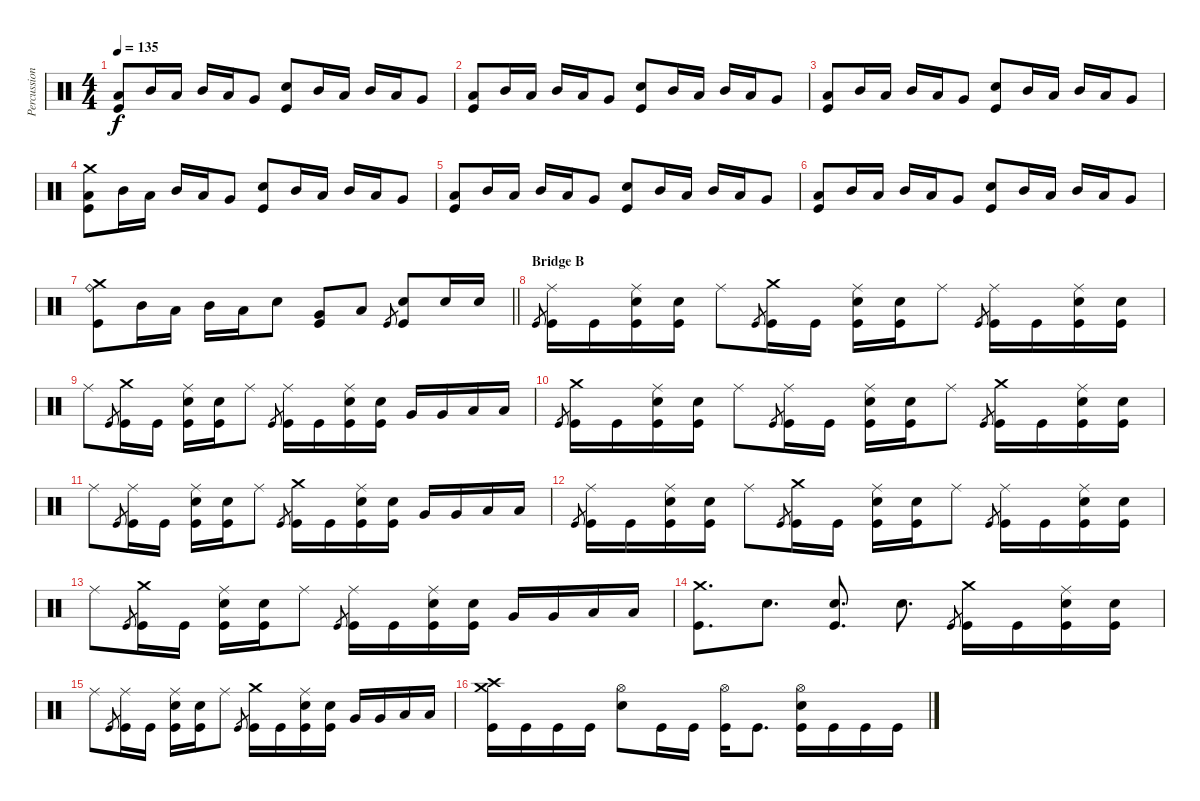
\track ("Percussion" "Percussion") {instrument percussion}
\staff {score}
\articulation defaults
\ts (4 4)
\tempo 135
\clef neutral
\ks c
("Low Tom (hit)" "Kick (hit)").8{dy f} "Mid Tom (hit)".16 "Low Tom (hit)".16 "Mid Tom (hit)".16 "Low Tom (hit)".16 "Very Low Tom (hit)".8 ("Electric Snare (hit)" "Kick (hit)").8 "Mid Tom (hit)".16 "Low Tom (hit)".16 "Mid Tom (hit)".16 "Low Tom (hit)".16 "Very Low Tom (hit)".8 |
("Low Tom (hit)" "Kick (hit)").8 "Mid Tom (hit)".16 "Low Tom (hit)".16 "Mid Tom (hit)".16 "Low Tom (hit)".16 "Very Low Tom (hit)".8 ("Electric Snare (hit)" "Kick (hit)").8 "Mid Tom (hit)".16 "Low Tom (hit)".16 "Mid Tom (hit)".16 "Low Tom (hit)".16 "Very Low Tom (hit)".8 |
("Low Tom (hit)" "Kick (hit)").8 "Mid Tom (hit)".16 "Low Tom (hit)".16 "Mid Tom (hit)".16 "Low Tom (hit)".16 "Very Low Tom (hit)".8 ("Electric Snare (hit)" "Kick (hit)").8 "Mid Tom (hit)".16 "Low Tom (hit)".16 "Mid Tom (hit)".16 "Low Tom (hit)".16 "Very Low Tom (hit)".8 |
("Crash medium (hit)" "Low Tom (hit)" "Kick (hit)").8 "Mid Tom (hit)".16 "Low Tom (hit)".16 "Mid Tom (hit)".16 "Low Tom (hit)".16 "Very Low Tom (hit)".8 ("Electric Snare (hit)" "Kick (hit)").8 "Mid Tom (hit)".16 "Low Tom (hit)".16 "Mid Tom (hit)".16 "Low Tom (hit)".16 "Very Low Tom (hit)".8 |
("Low Tom (hit)" "Kick (hit)").8 "Mid Tom (hit)".16 "Low Tom (hit)".16 "Mid Tom (hit)".16 "Low Tom (hit)".16 "Very Low Tom (hit)".8 ("Electric Snare (hit)" "Kick (hit)").8 "Mid Tom (hit)".16 "Low Tom (hit)".16 "Mid Tom (hit)".16 "Low Tom (hit)".16 "Very Low Tom (hit)".8 |
("Low Tom (hit)" "Kick (hit)").8 "Mid Tom (hit)".16 "Low Tom (hit)".16 "Mid Tom (hit)".16 "Low Tom (hit)".16 "Very Low Tom (hit)".8 ("Electric Snare (hit)" "Kick (hit)").8 "Mid Tom (hit)".16 "Low Tom (hit)".16 "Mid Tom (hit)".16 "Low Tom (hit)".16 "Very Low Tom (hit)".8 |
\barLineRight lightlight
("Crash medium (hit)" "Ride (bell)" "Kick (hit)").8 "Mid Tom (hit)".16 "Low Tom (hit)".16 "Mid Tom (hit)".16 "Low Tom (hit)".16 "Electric Snare (hit)".8 ("Very Low Tom (hit)" "Kick (hit)").8 "Low Tom (hit)".8 "Kick (hit)".8{gr} ("Electric Snare (hit)" "Kick (hit)").8 "Electric Snare (hit)".16 "Electric Snare (hit)".16 |
\section ("" "Bridge B")
"Kick (hit)".8{gr} ("Ride (middle)" "Kick (hit)").16 "Kick (hit)".16 ("Ride (middle)" "Electric Snare (hit)" "Kick (hit)").16 ("Electric Snare (hit)" "Kick (hit)").16 "Ride (middle)".8 "Kick (hit)".8{gr} ("Crash medium (hit)" "Kick (hit)").16 "Kick (hit)".16 ("Ride (middle)" "Electric Snare (hit)" "Kick (hit)").16 ("Electric Snare (hit)" "Kick (hit)").16 "Ride (middle)".8 "Kick (hit)".8{gr} ("Ride (middle)" "Kick (hit)").16 "Kick (hit)".16 ("Ride (middle)" "Electric Snare (hit)" "Kick (hit)").16 ("Electric Snare (hit)" "Kick (hit)").16 |
"Ride (middle)".8 "Kick (hit)".8{gr} ("Crash medium (hit)" "Kick (hit)").16 "Kick (hit)".16 ("Ride (middle)" "Electric Snare (hit)" "Kick (hit)").16 ("Electric Snare (hit)" "Kick (hit)").16 "Ride (middle)".8 "Kick (hit)".8{gr} ("Ride (middle)" "Kick (hit)").16 "Kick (hit)".16 ("Ride (middle)" "Electric Snare (hit)" "Kick (hit)").16 ("Electric Snare (hit)" "Kick (hit)").16 "Very Low Tom (hit)".16 "Very Low Tom (hit)".16 "Low Floor Tom (hit)".16 "Low Floor Tom (hit)".16 |
"Kick (hit)".8{gr} ("Crash medium (hit)" "Kick (hit)").16 "Kick (hit)".16 ("Ride (middle)" "Electric Snare (hit)" "Kick (hit)").16 ("Electric Snare (hit)" "Kick (hit)").16 "Ride (middle)".8 "Kick (hit)".8{gr} ("Ride (middle)" "Kick (hit)").16 "Kick (hit)".16 ("Ride (middle)" "Electric Snare (hit)" "Kick (hit)").16 ("Electric Snare (hit)" "Kick (hit)").16 "Ride (middle)".8 "Kick (hit)".8{gr} ("Crash medium (hit)" "Kick (hit)").16 "Kick (hit)".16 ("Ride (middle)" "Electric Snare (hit)" "Kick (hit)").16 ("Electric Snare (hit)" "Kick (hit)").16 |
"Ride (middle)".8 "Kick (hit)".8{gr} ("Ride (middle)" "Kick (hit)").16 "Kick (hit)".16 ("Ride (middle)" "Electric Snare (hit)" "Kick (hit)").16 ("Electric Snare (hit)" "Kick (hit)").16 "Ride (middle)".8 "Kick (hit)".8{gr} ("Crash medium (hit)" "Kick (hit)").16 "Kick (hit)".16 ("Ride (middle)" "Electric Snare (hit)" "Kick (hit)").16 ("Electric Snare (hit)" "Kick (hit)").16 "Very Low Tom (hit)".16 "Very Low Tom (hit)".16 "Low Floor Tom (hit)".16 "Low Floor Tom (hit)".16 |
"Kick (hit)".8{gr} ("Ride (middle)" "Kick (hit)").16 "Kick (hit)".16 ("Ride (middle)" "Electric Snare (hit)" "Kick (hit)").16 ("Electric Snare (hit)" "Kick (hit)").16 "Ride (middle)".8 "Kick (hit)".8{gr} ("Crash medium (hit)" "Kick (hit)").16 "Kick (hit)".16 ("Ride (middle)" "Electric Snare (hit)" "Kick (hit)").16 ("Electric Snare (hit)" "Kick (hit)").16 "Ride (middle)".8 "Kick (hit)".8{gr} ("Ride (middle)" "Kick (hit)").16 "Kick (hit)".16 ("Ride (middle)" "Electric Snare (hit)" "Kick (hit)").16 ("Electric Snare (hit)" "Kick (hit)").16 |
"Ride (middle)".8 "Kick (hit)".8{gr} ("Crash medium (hit)" "Kick (hit)").16 "Kick (hit)".16 ("Ride (middle)" "Electric Snare (hit)" "Kick (hit)").16 ("Electric Snare (hit)" "Kick (hit)").16 "Ride (middle)".8 "Kick (hit)".8{gr} ("Ride (middle)" "Kick (hit)").16 "Kick (hit)".16 ("Ride (middle)" "Electric Snare (hit)" "Kick (hit)").16 ("Electric Snare (hit)" "Kick (hit)").16 "Very Low Tom (hit)".16 "Very Low Tom (hit)".16 "Low Floor Tom (hit)".16 "Low Floor Tom (hit)".16 |
("Crash medium (hit)" "Kick (hit)").8{d} "Electric Snare (hit)".8{d} ("Electric Snare (hit)" "Kick (hit)").8{d} "Electric Snare (hit)".8{d} "Kick (hit)".8{gr} ("Crash medium (hit)" "Kick (hit)").16 "Kick (hit)".16 ("Ride (middle)" "Electric Snare (hit)" "Kick (hit)").16 ("Electric Snare (hit)" "Kick (hit)").16 |
"Ride (middle)".8 "Kick (hit)".8{gr} ("Ride (middle)" "Kick (hit)").16 "Kick (hit)".16 ("Ride (middle)" "Electric Snare (hit)" "Kick (hit)").16 ("Electric Snare (hit)" "Kick (hit)").16 "Ride (middle)".8 "Kick (hit)".8{gr} ("Crash medium (hit)" "Kick (hit)").16 "Kick (hit)".16 ("Ride (middle)" "Electric Snare (hit)" "Kick (hit)").16 ("Electric Snare (hit)" "Kick (hit)").16 "Very Low Tom (hit)".16 "Very Low Tom (hit)".16 "Low Floor Tom (hit)".16 "Low Floor Tom (hit)".16 |
("Crash high (hit)" "Crash medium (hit)" "Kick (hit)").16 "Kick (hit)".16 "Kick (hit)".16 "Kick (hit)".16 ("Hi-Hat (open)" "Electric Snare (hit)").8 "Kick (hit)".16 "Kick (hit)".16 ("Hi-Hat (open)" "Kick (hit)").16 "Kick (hit)".8{d} ("Hi-Hat (open)" "Electric Snare (hit)" "Kick (hit)").16 "Kick (hit)".16 "Kick (hit)".16 "Kick (hit)".16
